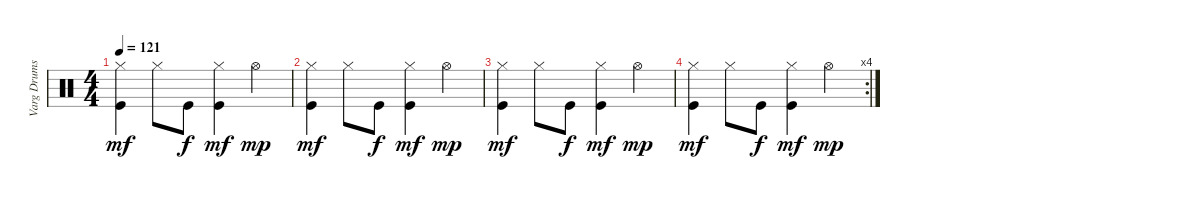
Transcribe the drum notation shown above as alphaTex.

\track ("Varg Drums" "Varg Drums") {instrument percussion}
\staff {score}
\articulation defaults
\ts (4 4)
\tempo 121
\clef neutral
\ks c
("Hi-Hat (closed)" "Kick (hit)").4{dy mf} "Hi-Hat (closed)".8 "Kick (hit)".8{dy f} ("Hi-Hat (closed)" "Kick (hit)").4{dy mf} "Hi-Hat (open)".4{dy mp} |
("Hi-Hat (closed)" "Kick (hit)").4{dy mf} "Hi-Hat (closed)".8 "Kick (hit)".8{dy f} ("Hi-Hat (closed)" "Kick (hit)").4{dy mf} "Hi-Hat (open)".4{dy mp} |
("Hi-Hat (closed)" "Kick (hit)").4{dy mf} "Hi-Hat (closed)".8 "Kick (hit)".8{dy f} ("Hi-Hat (closed)" "Kick (hit)").4{dy mf} "Hi-Hat (open)".4{dy mp} |
\rc 4
("Hi-Hat (closed)" "Kick (hit)").4{dy mf} "Hi-Hat (closed)".8 "Kick (hit)".8{dy f} ("Hi-Hat (closed)" "Kick (hit)").4{dy mf} "Hi-Hat (open)".4{dy mp}
